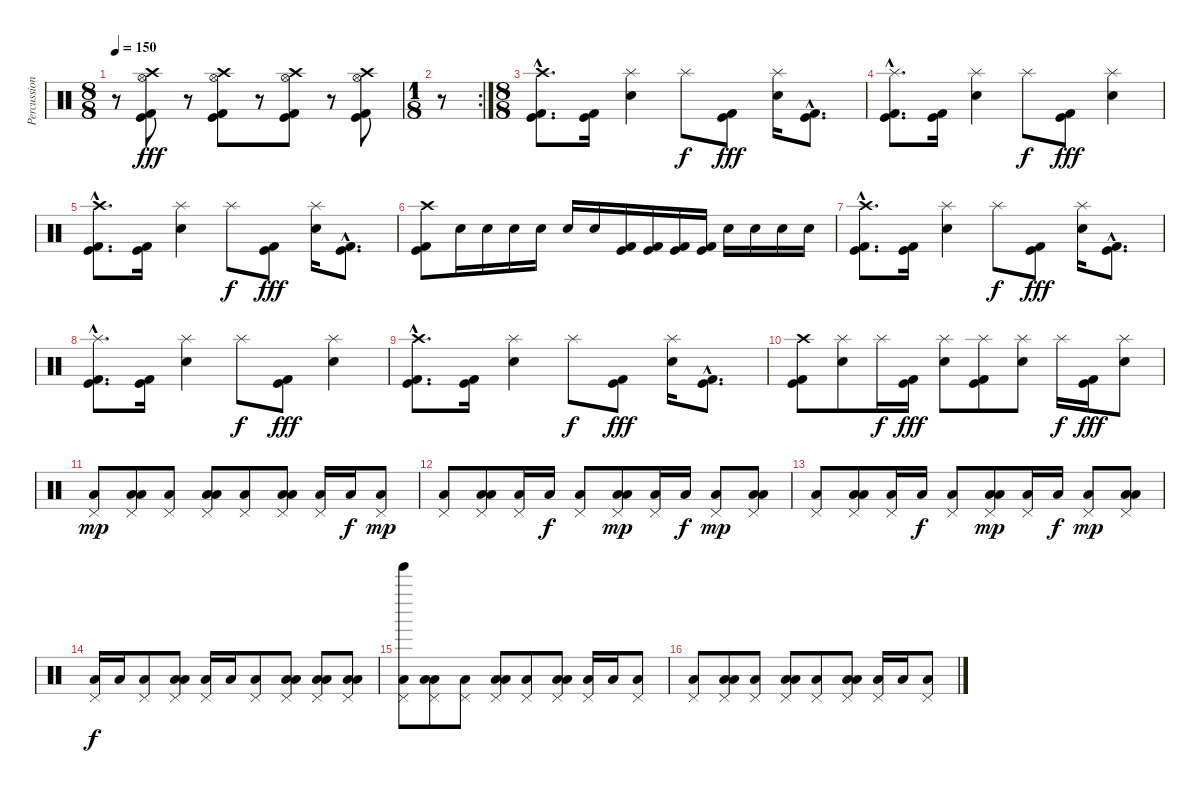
\track ("Percussion" "Percussion") {instrument percussion}
\staff {score}
\articulation defaults
\ts (8 8)
\tempo 150
\clef neutral
\ks c
r.8{dy fff} ("Crash high (hit)" "Hi-Hat (open)" "Kick (hit)" "Kick (hit) 2").8 r.8 ("Crash high (hit)" "Hi-Hat (open)" "Kick (hit)" "Kick (hit) 2").8 r.8 ("Crash high (hit)" "Hi-Hat (open)" "Kick (hit)" "Kick (hit) 2").8 r.8 ("Crash high (hit)" "Hi-Hat (open)" "Kick (hit)" "Kick (hit) 2").8 |
\rc 2
\ts (1 8)
r.8 |
\ts (8 8)
("Crash high (hit)"{hac} "Kick (hit)"{hac} "Kick (hit) 2"{hac}).8{d} ("Kick (hit)" "Kick (hit) 2").16 ("Splash (hit)" "Electric Snare (hit)").4 "Splash (hit)".8{dy f} ("Kick (hit)" "Kick (hit) 2").8{dy fff} ("Splash (hit)" "Electric Snare (hit)").16 ("Kick (hit)"{hac} "Kick (hit) 2"{hac}).8{d} |
("Splash (hit)"{hac} "Kick (hit)"{hac} "Kick (hit) 2"{hac}).8{d} ("Kick (hit)" "Kick (hit) 2").16 ("Splash (hit)" "Electric Snare (hit)").4 "Splash (hit)".8{dy f} ("Kick (hit)" "Kick (hit) 2").8{dy fff} ("Splash (hit)" "Electric Snare (hit)").4 |
("Crash high (hit)"{hac} "Kick (hit)"{hac} "Kick (hit) 2"{hac}).8{d} ("Kick (hit)" "Kick (hit) 2").16 ("Splash (hit)" "Electric Snare (hit)").4 "Splash (hit)".8{dy f} ("Kick (hit)" "Kick (hit) 2").8{dy fff} ("Splash (hit)" "Electric Snare (hit)").16 ("Kick (hit)"{hac} "Kick (hit) 2"{hac}).8{d} |
("Crash high (hit)" "Kick (hit)" "Kick (hit) 2").8 "Electric Snare (hit)".16 "Electric Snare (hit)".16 "Electric Snare (hit)".16 "Electric Snare (hit)".16 "Electric Snare (hit)".16 "Electric Snare (hit)".16 ("Kick (hit)" "Kick (hit) 2").16 ("Kick (hit)" "Kick (hit) 2").16 ("Kick (hit)" "Kick (hit) 2").16 ("Kick (hit)" "Kick (hit) 2").16 "Electric Snare (hit)".16 "Electric Snare (hit)".16 "Electric Snare (hit)".16 "Electric Snare (hit)".16 |
("Crash high (hit)"{hac} "Kick (hit)"{hac} "Kick (hit) 2"{hac}).8{d} ("Kick (hit)" "Kick (hit) 2").16 ("Splash (hit)" "Electric Snare (hit)").4 "Splash (hit)".8{dy f} ("Kick (hit)" "Kick (hit) 2").8{dy fff} ("Splash (hit)" "Electric Snare (hit)").16 ("Kick (hit)"{hac} "Kick (hit) 2"{hac}).8{d} |
("Splash (hit)"{hac} "Kick (hit)"{hac} "Kick (hit) 2"{hac}).8{d} ("Kick (hit)" "Kick (hit) 2").16 ("Splash (hit)" "Electric Snare (hit)").4 "Splash (hit)".8{dy f} ("Kick (hit)" "Kick (hit) 2").8{dy fff} ("Splash (hit)" "Electric Snare (hit)").4 |
("Crash high (hit)"{hac} "Kick (hit)"{hac} "Kick (hit) 2"{hac}).8{d} ("Kick (hit)" "Kick (hit) 2").16 ("Splash (hit)" "Electric Snare (hit)").4 "Splash (hit)".8{dy f} ("Kick (hit)" "Kick (hit) 2").8{dy fff} ("Splash (hit)" "Electric Snare (hit)").16 ("Kick (hit)"{hac} "Kick (hit) 2"{hac}).8{d} |
("Crash high (hit)" "Kick (hit)" "Kick (hit) 2").8 ("Splash (hit)" "Electric Snare (hit)").8 "Splash (hit)".16{dy f} ("Kick (hit)" "Kick (hit) 2").16{dy fff} ("Splash (hit)" "Electric Snare (hit)").8 ("Splash (hit)" "Kick (hit)" "Kick (hit) 2").8 ("Splash (hit)" "Electric Snare (hit)").8 "Splash (hit)".16{dy f} ("Kick (hit)" "Kick (hit) 2").16{dy fff} ("Splash (hit)" "Electric Snare (hit)").8 |
("Pedal Hi-Hat (hit)" "Low Floor Tom (hit)").8{dy mp} ("Pedal Hi-Hat (hit)" "Low Floor Tom (hit)" "Low Tom (hit)").8 ("Pedal Hi-Hat (hit)" "Low Floor Tom (hit)").8 ("Pedal Hi-Hat (hit)" "Low Floor Tom (hit)" "Low Tom (hit)").8 ("Pedal Hi-Hat (hit)" "Low Floor Tom (hit)").8 ("Pedal Hi-Hat (hit)" "Low Floor Tom (hit)" "Low Tom (hit)").8 ("Pedal Hi-Hat (hit)" "Low Floor Tom (hit)").16 "Low Tom (hit)".16{dy f} ("Pedal Hi-Hat (hit)" "Low Floor Tom (hit)").8{dy mp} |
("Pedal Hi-Hat (hit)" "Low Floor Tom (hit)").8 ("Pedal Hi-Hat (hit)" "Low Floor Tom (hit)" "Low Tom (hit)").8 ("Pedal Hi-Hat (hit)" "Low Floor Tom (hit)").16 "Low Tom (hit)".16{dy f} ("Pedal Hi-Hat (hit)" "Low Floor Tom (hit)").8 ("Pedal Hi-Hat (hit)" "Low Floor Tom (hit)" "Low Tom (hit)").8{dy mp} ("Pedal Hi-Hat (hit)" "Low Floor Tom (hit)").16 "Low Tom (hit)".16{dy f} ("Pedal Hi-Hat (hit)" "Low Floor Tom (hit)").8{dy mp} ("Pedal Hi-Hat (hit)" "Low Floor Tom (hit)" "Low Tom (hit)").8 |
("Pedal Hi-Hat (hit)" "Low Floor Tom (hit)").8 ("Pedal Hi-Hat (hit)" "Low Floor Tom (hit)" "Low Tom (hit)").8 ("Pedal Hi-Hat (hit)" "Low Floor Tom (hit)").16 "Low Tom (hit)".16{dy f} ("Pedal Hi-Hat (hit)" "Low Floor Tom (hit)").8 ("Pedal Hi-Hat (hit)" "Low Floor Tom (hit)" "Low Tom (hit)").8{dy mp} ("Pedal Hi-Hat (hit)" "Low Floor Tom (hit)").16 "Low Tom (hit)".16{dy f} ("Pedal Hi-Hat (hit)" "Low Floor Tom (hit)").8{dy mp} ("Pedal Hi-Hat (hit)" "Low Floor Tom (hit)" "Low Tom (hit)").8 |
("Pedal Hi-Hat (hit)" "Low Floor Tom (hit)").16{dy f} "Low Tom (hit)".16 ("Pedal Hi-Hat (hit)" "Low Floor Tom (hit)").8 ("Pedal Hi-Hat (hit)" "Low Floor Tom (hit)" "Low Tom (hit)").8 ("Pedal Hi-Hat (hit)" "Low Floor Tom (hit)").16 "Low Tom (hit)".16 ("Pedal Hi-Hat (hit)" "Low Floor Tom (hit)").8 ("Pedal Hi-Hat (hit)" "Low Tom (hit)" "Low Tom (hit)").8 ("Pedal Hi-Hat (hit)" "Low Tom (hit)" "Low Tom (hit)").8 ("Pedal Hi-Hat (hit)" "Low Tom (hit)" "Low Tom (hit)").8 |
("Pedal Hi-Hat (hit)" "Low Floor Tom (hit)" "Tinkle Bell (hit)").8 ("Pedal Hi-Hat (hit)" "Low Floor Tom (hit)" "Low Tom (hit)").8 ("Pedal Hi-Hat (hit)" "Low Floor Tom (hit)").8 ("Pedal Hi-Hat (hit)" "Low Floor Tom (hit)" "Low Tom (hit)").8 ("Pedal Hi-Hat (hit)" "Low Floor Tom (hit)").8 ("Pedal Hi-Hat (hit)" "Low Floor Tom (hit)" "Low Tom (hit)").8 ("Pedal Hi-Hat (hit)" "Low Floor Tom (hit)").16 "Low Tom (hit)".16 ("Pedal Hi-Hat (hit)" "Low Floor Tom (hit)").8 |
("Pedal Hi-Hat (hit)" "Low Floor Tom (hit)").8 ("Pedal Hi-Hat (hit)" "Low Floor Tom (hit)" "Low Tom (hit)").8 ("Pedal Hi-Hat (hit)" "Low Floor Tom (hit)").8 ("Pedal Hi-Hat (hit)" "Low Floor Tom (hit)" "Low Tom (hit)").8 ("Pedal Hi-Hat (hit)" "Low Floor Tom (hit)").8 ("Pedal Hi-Hat (hit)" "Low Floor Tom (hit)" "Low Tom (hit)").8 ("Pedal Hi-Hat (hit)" "Low Floor Tom (hit)").16 "Low Tom (hit)".16 ("Pedal Hi-Hat (hit)" "Low Floor Tom (hit)").8
